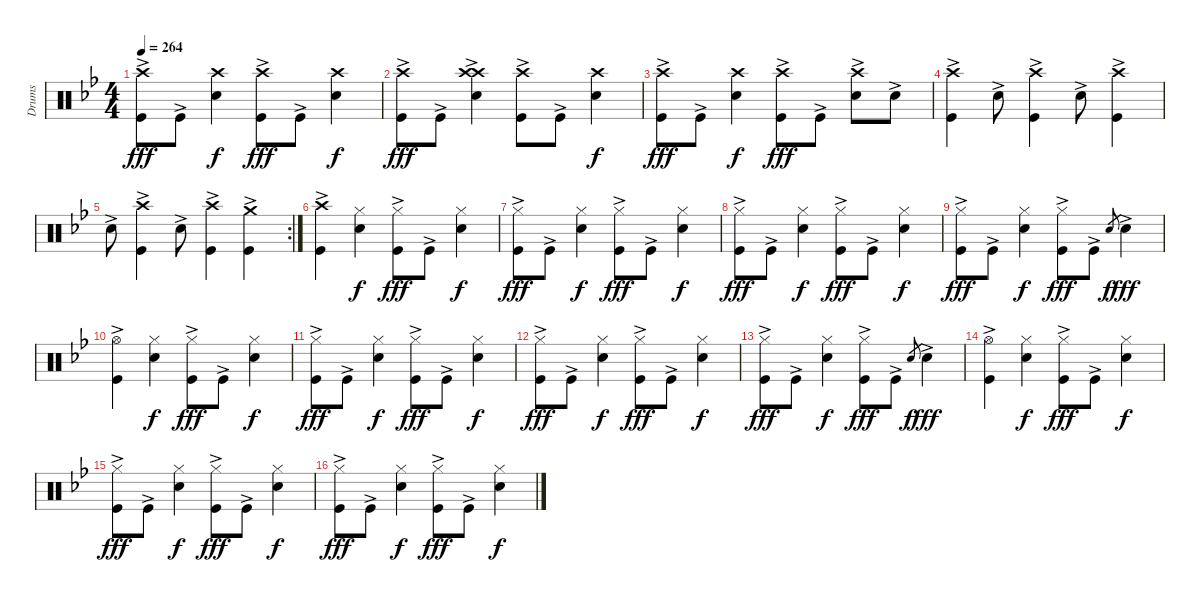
\track ("Drums" "Drums") {instrument percussion}
\staff {score}
\articulation defaults
\ts (4 4)
\tempo 264
\clef neutral
\ks gminor
("Crash high (hit)" "Kick (hit)"{ac}).8{dy fff} "Kick (hit)"{ac}.8 ("Crash high (hit)" "Snare (hit) 2").4{dy f} ("Crash high (hit)" "Kick (hit)"{ac}).8{dy fff} "Kick (hit)"{ac}.8 ("Crash high (hit)" "Snare (hit) 2").4{dy f} |
("Crash high (hit)" "Kick (hit)"{ac}).8{dy fff} "Kick (hit)"{ac}.8 ("Crash high (hit)"{ac} "Crash high (hit)" "Snare (hit) 2"{ac}).4 ("Crash high (hit)" "Kick (hit)"{ac}).8 "Kick (hit)"{ac}.8 ("Crash high (hit)" "Snare (hit) 2").4{dy f} |
("Crash high (hit)" "Kick (hit)"{ac}).8{dy fff} "Kick (hit)"{ac}.8 ("Crash high (hit)" "Snare (hit) 2").4{dy f} ("Crash high (hit)" "Kick (hit)"{ac}).8{dy fff} "Kick (hit)"{ac}.8 ("Crash high (hit)" "Snare (hit) 2"{ac}).8 "Snare (hit) 2"{ac}.8 |
("Crash high (hit)" "Kick (hit)"{ac}).4 "Snare (hit) 2"{ac}.8 ("Crash high (hit)" "Kick (hit)"{ac}).4 "Snare (hit) 2"{ac}.8 ("Crash high (hit)" "Kick (hit)"{ac}).4 |
\rc 2 "Snare (hit) 2"{ac}.8
("Crash high (hit)" "Kick (hit)"{ac}).4 "Snare (hit) 2"{ac}.8 ("Crash high (hit)" "Kick (hit)"{ac}).4 ("Crash medium (hit)" "Kick (hit)"{ac}).4 |
("Crash high (hit)" "Kick (hit)"{ac}).4 ("Hi-Hat (closed)" "Snare (hit) 2").4{dy f} ("Hi-Hat (closed)" "Kick (hit)"{ac}).8{dy fff} "Kick (hit)"{ac}.8 ("Hi-Hat (closed)" "Snare (hit) 2").4{dy f} |
("Hi-Hat (closed)" "Kick (hit)"{ac}).8{dy fff} "Kick (hit)"{ac}.8 ("Hi-Hat (closed)" "Snare (hit) 2").4{dy f} ("Hi-Hat (closed)" "Kick (hit)"{ac}).8{dy fff} "Kick (hit)"{ac}.8 ("Hi-Hat (closed)" "Snare (hit) 2").4{dy f} |
("Hi-Hat (closed)" "Kick (hit)"{ac}).8{dy fff} "Kick (hit)"{ac}.8 ("Hi-Hat (closed)" "Snare (hit) 2").4{dy f} ("Hi-Hat (closed)" "Kick (hit)"{ac}).8{dy fff} "Kick (hit)"{ac}.8 ("Hi-Hat (closed)" "Snare (hit) 2").4{dy f} |
("Hi-Hat (closed)" "Kick (hit)"{ac}).8{dy fff} "Kick (hit)"{ac}.8 ("Hi-Hat (closed)" "Snare (hit) 2").4{dy f} ("Hi-Hat (closed)" "Kick (hit)"{ac}).8{dy fff} "Kick (hit)"{ac}.8 "Snare (hit) 2".8{gr dy f} "Snare (hit) 2"{ac}.4{dy fff} |
("Hi-Hat (open)" "Kick (hit)"{ac}).4 ("Hi-Hat (closed)" "Snare (hit) 2").4{dy f} ("Hi-Hat (closed)" "Kick (hit)"{ac}).8{dy fff} "Kick (hit)"{ac}.8 ("Hi-Hat (closed)" "Snare (hit) 2").4{dy f} |
("Hi-Hat (closed)" "Kick (hit)"{ac}).8{dy fff} "Kick (hit)"{ac}.8 ("Hi-Hat (closed)" "Snare (hit) 2").4{dy f} ("Hi-Hat (closed)" "Kick (hit)"{ac}).8{dy fff} "Kick (hit)"{ac}.8 ("Hi-Hat (closed)" "Snare (hit) 2").4{dy f} |
("Hi-Hat (closed)" "Kick (hit)"{ac}).8{dy fff} "Kick (hit)"{ac}.8 ("Hi-Hat (closed)" "Snare (hit) 2").4{dy f} ("Hi-Hat (closed)" "Kick (hit)"{ac}).8{dy fff} "Kick (hit)"{ac}.8 ("Hi-Hat (closed)" "Snare (hit) 2").4{dy f} |
("Hi-Hat (closed)" "Kick (hit)"{ac}).8{dy fff} "Kick (hit)"{ac}.8 ("Hi-Hat (closed)" "Snare (hit) 2").4{dy f} ("Hi-Hat (closed)" "Kick (hit)"{ac}).8{dy fff} "Kick (hit)"{ac}.8 "Snare (hit) 2".8{gr dy f} "Snare (hit) 2"{ac}.4{dy fff} |
("Hi-Hat (open)" "Kick (hit)"{ac}).4 ("Hi-Hat (closed)" "Snare (hit) 2").4{dy f} ("Hi-Hat (closed)" "Kick (hit)"{ac}).8{dy fff} "Kick (hit)"{ac}.8 ("Hi-Hat (closed)" "Snare (hit) 2").4{dy f} |
("Hi-Hat (closed)" "Kick (hit)"{ac}).8{dy fff} "Kick (hit)"{ac}.8 ("Hi-Hat (closed)" "Snare (hit) 2").4{dy f} ("Hi-Hat (closed)" "Kick (hit)"{ac}).8{dy fff} "Kick (hit)"{ac}.8 ("Hi-Hat (closed)" "Snare (hit) 2").4{dy f} |
("Hi-Hat (closed)" "Kick (hit)"{ac}).8{dy fff} "Kick (hit)"{ac}.8 ("Hi-Hat (closed)" "Snare (hit) 2").4{dy f} ("Hi-Hat (closed)" "Kick (hit)"{ac}).8{dy fff} "Kick (hit)"{ac}.8 ("Hi-Hat (closed)" "Snare (hit) 2").4{dy f}
